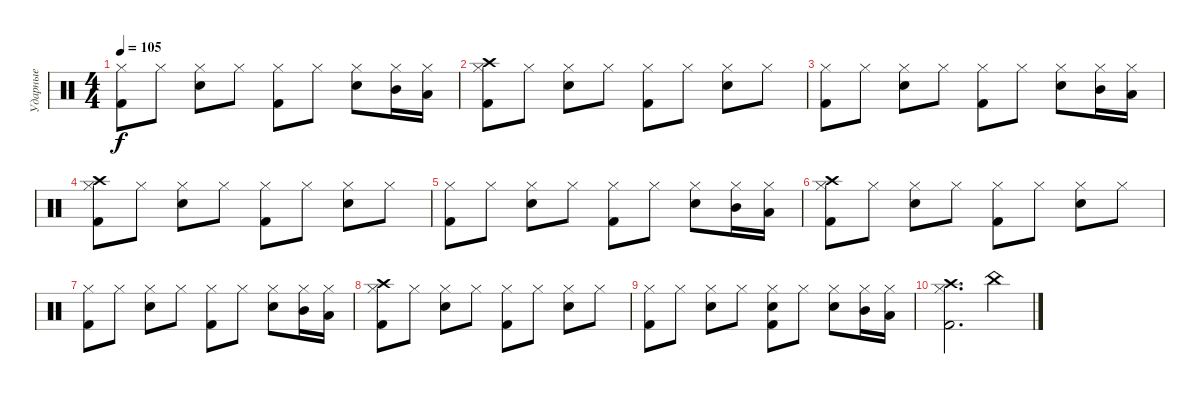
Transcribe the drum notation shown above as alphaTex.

\track ("Ударные" "Ударные") {instrument percussion}
\staff {score}
\articulation defaults
\ts (4 4)
\tempo 105
\clef neutral
\ks c
("Kick (hit) 2" "Hi-Hat (closed)").8{dy f} "Hi-Hat (closed)".8 ("Snare (hit) 2" "Hi-Hat (closed)").8 "Hi-Hat (closed)".8 ("Kick (hit) 2" "Hi-Hat (closed)").8 "Hi-Hat (closed)".8 ("Snare (hit) 2" "Hi-Hat (closed)").8 ("Mid Tom (hit)" "Hi-Hat (closed)").16 ("Low Tom (hit)" "Hi-Hat (closed)").16 |
("Crash high (hit)" "Kick (hit) 2" "Hi-Hat (closed)").8 "Hi-Hat (closed)".8 ("Snare (hit) 2" "Hi-Hat (closed)").8 "Hi-Hat (closed)".8 ("Kick (hit) 2" "Hi-Hat (closed)").8 "Hi-Hat (closed)".8 ("Snare (hit) 2" "Hi-Hat (closed)").8 "Hi-Hat (closed)".8 |
("Kick (hit) 2" "Hi-Hat (closed)").8 "Hi-Hat (closed)".8 ("Snare (hit) 2" "Hi-Hat (closed)").8 "Hi-Hat (closed)".8 ("Kick (hit) 2" "Hi-Hat (closed)").8 "Hi-Hat (closed)".8 ("Snare (hit) 2" "Hi-Hat (closed)").8 ("Mid Tom (hit)" "Hi-Hat (closed)").16 ("Low Tom (hit)" "Hi-Hat (closed)").16 |
("Crash high (hit)" "Kick (hit) 2" "Hi-Hat (closed)").8 "Hi-Hat (closed)".8 ("Snare (hit) 2" "Hi-Hat (closed)").8 "Hi-Hat (closed)".8 ("Kick (hit) 2" "Hi-Hat (closed)").8 "Hi-Hat (closed)".8 ("Snare (hit) 2" "Hi-Hat (closed)").8 "Hi-Hat (closed)".8 |
("Kick (hit) 2" "Hi-Hat (closed)").8 "Hi-Hat (closed)".8 ("Snare (hit) 2" "Hi-Hat (closed)").8 "Hi-Hat (closed)".8 ("Kick (hit) 2" "Hi-Hat (closed)").8 "Hi-Hat (closed)".8 ("Snare (hit) 2" "Hi-Hat (closed)").8 ("Mid Tom (hit)" "Hi-Hat (closed)").16 ("Low Tom (hit)" "Hi-Hat (closed)").16 |
("Crash high (hit)" "Kick (hit) 2" "Hi-Hat (closed)").8 "Hi-Hat (closed)".8 ("Snare (hit) 2" "Hi-Hat (closed)").8 "Hi-Hat (closed)".8 ("Kick (hit) 2" "Hi-Hat (closed)").8 "Hi-Hat (closed)".8 ("Snare (hit) 2" "Hi-Hat (closed)").8 "Hi-Hat (closed)".8 |
("Kick (hit) 2" "Hi-Hat (closed)").8 "Hi-Hat (closed)".8 ("Snare (hit) 2" "Hi-Hat (closed)").8 "Hi-Hat (closed)".8 ("Kick (hit) 2" "Hi-Hat (closed)").8 "Hi-Hat (closed)".8 ("Snare (hit) 2" "Hi-Hat (closed)").8 ("Mid Tom (hit)" "Hi-Hat (closed)").16 ("Low Tom (hit)" "Hi-Hat (closed)").16 |
("Crash high (hit)" "Kick (hit) 2" "Hi-Hat (closed)").8 "Hi-Hat (closed)".8 ("Snare (hit) 2" "Hi-Hat (closed)").8 "Hi-Hat (closed)".8 ("Kick (hit) 2" "Hi-Hat (closed)").8 "Hi-Hat (closed)".8 ("Snare (hit) 2" "Hi-Hat (closed)").8 "Hi-Hat (closed)".8 |
("Kick (hit) 2" "Hi-Hat (closed)").8 "Hi-Hat (closed)".8 ("Snare (hit) 2" "Hi-Hat (closed)").8 "Hi-Hat (closed)".8 ("Snare (hit) 2" "Kick (hit) 2" "Hi-Hat (closed)").8 "Hi-Hat (closed)".8 ("Snare (hit) 2" "Hi-Hat (closed)").8 ("Mid Tom (hit)" "Hi-Hat (closed)").16 ("Low Tom (hit)" "Hi-Hat (closed)").16 |
("Crash high (hit)" "Kick (hit) 2" "Hi-Hat (closed)").2{d} "China (hit)".4
